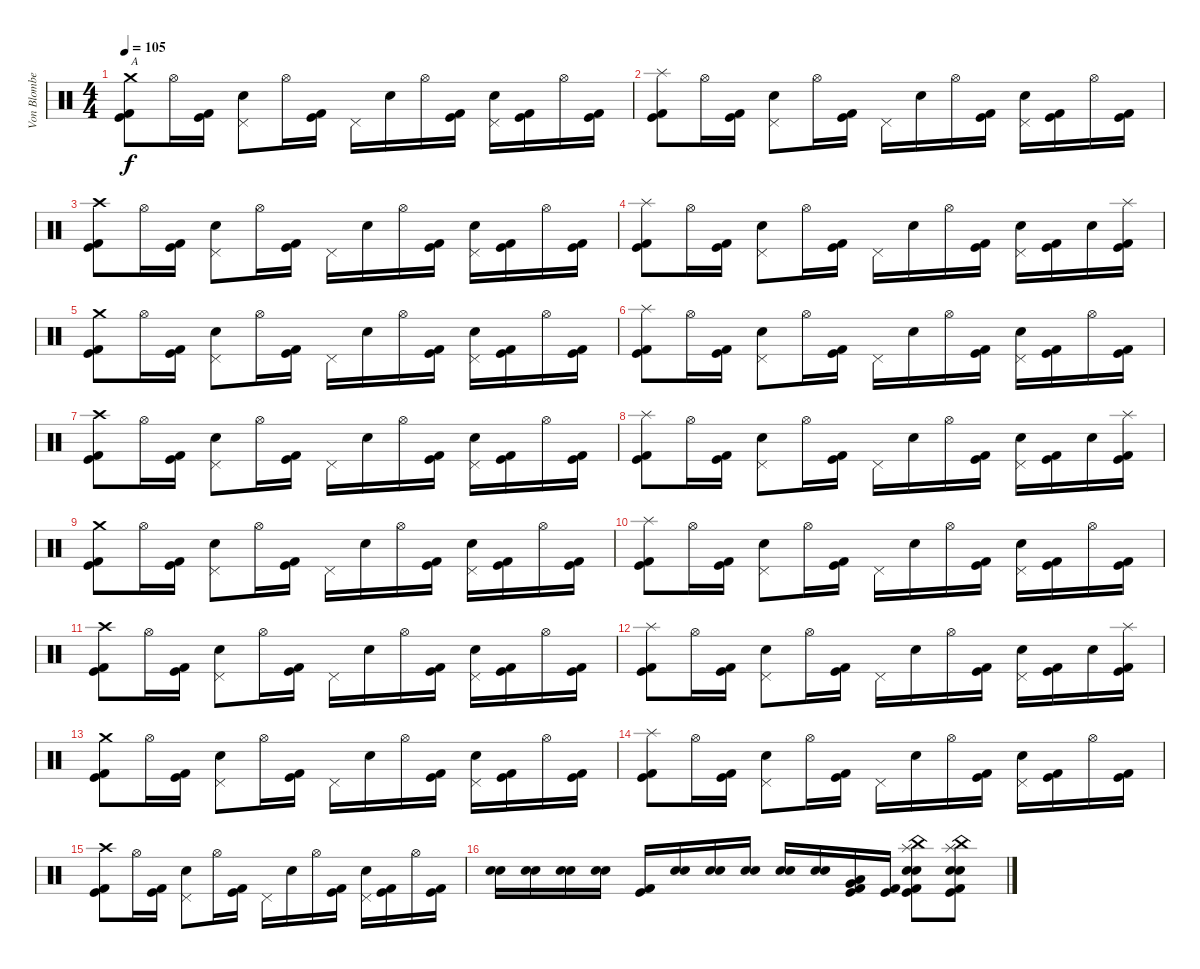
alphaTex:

\track ("Von Blomberg" "Von Blombe") {instrument percussion}
\staff {score}
\articulation defaults
\ts (4 4)
\tempo 105
\clef neutral
\ks c
("Crash medium (hit)" "Kick (hit)" "Kick (hit) 2").8{txt "A" dy f} "Hi-Hat (open)".16 ("Kick (hit)" "Kick (hit) 2").16 ("Pedal Hi-Hat (hit)" "Snare (hit) 2").8 "Hi-Hat (open)".16 ("Kick (hit)" "Kick (hit) 2").16 "Pedal Hi-Hat (hit)".16 "Snare (hit) 2".16 "Hi-Hat (open)".16 ("Kick (hit)" "Kick (hit) 2").16 ("Pedal Hi-Hat (hit)" "Snare (hit) 2").16 ("Kick (hit)" "Kick (hit) 2").16 "Hi-Hat (open)".16 ("Kick (hit)" "Kick (hit) 2").16 |
("Splash (hit)" "Kick (hit)" "Kick (hit) 2").8 "Hi-Hat (open)".16 ("Kick (hit)" "Kick (hit) 2").16 ("Pedal Hi-Hat (hit)" "Snare (hit) 2").8 "Hi-Hat (open)".16 ("Kick (hit)" "Kick (hit) 2").16 "Pedal Hi-Hat (hit)".16 "Snare (hit) 2".16 "Hi-Hat (open)".16 ("Kick (hit)" "Kick (hit) 2").16 ("Pedal Hi-Hat (hit)" "Snare (hit) 2").16 ("Kick (hit)" "Kick (hit) 2").16 "Hi-Hat (open)".16 ("Kick (hit)" "Kick (hit) 2").16 |
("Crash high (hit)" "Kick (hit)" "Kick (hit) 2").8 "Hi-Hat (open)".16 ("Kick (hit)" "Kick (hit) 2").16 ("Pedal Hi-Hat (hit)" "Snare (hit) 2").8 "Hi-Hat (open)".16 ("Kick (hit)" "Kick (hit) 2").16 "Pedal Hi-Hat (hit)".16 "Snare (hit) 2".16 "Hi-Hat (open)".16 ("Kick (hit)" "Kick (hit) 2").16 ("Pedal Hi-Hat (hit)" "Snare (hit) 2").16 ("Kick (hit)" "Kick (hit) 2").16 "Hi-Hat (open)".16 ("Kick (hit)" "Kick (hit) 2").16 |
("Splash (hit)" "Kick (hit)" "Kick (hit) 2").8 "Hi-Hat (open)".16 ("Kick (hit)" "Kick (hit) 2").16 ("Pedal Hi-Hat (hit)" "Snare (hit) 2").8 "Hi-Hat (open)".16 ("Kick (hit)" "Kick (hit) 2").16 "Pedal Hi-Hat (hit)".16 "Snare (hit) 2".16 "Hi-Hat (open)".16 ("Kick (hit)" "Kick (hit) 2").16 ("Pedal Hi-Hat (hit)" "Snare (hit) 2").16 ("Kick (hit)" "Kick (hit) 2").16 "Snare (hit) 2".16 ("Splash (hit)" "Kick (hit)" "Kick (hit) 2").16 |
("Crash medium (hit)" "Kick (hit)" "Kick (hit) 2").8 "Hi-Hat (open)".16 ("Kick (hit)" "Kick (hit) 2").16 ("Pedal Hi-Hat (hit)" "Snare (hit) 2").8 "Hi-Hat (open)".16 ("Kick (hit)" "Kick (hit) 2").16 "Pedal Hi-Hat (hit)".16 "Snare (hit) 2".16 "Hi-Hat (open)".16 ("Kick (hit)" "Kick (hit) 2").16 ("Pedal Hi-Hat (hit)" "Snare (hit) 2").16 ("Kick (hit)" "Kick (hit) 2").16 "Hi-Hat (open)".16 ("Kick (hit)" "Kick (hit) 2").16 |
("Splash (hit)" "Kick (hit)" "Kick (hit) 2").8 "Hi-Hat (open)".16 ("Kick (hit)" "Kick (hit) 2").16 ("Pedal Hi-Hat (hit)" "Snare (hit) 2").8 "Hi-Hat (open)".16 ("Kick (hit)" "Kick (hit) 2").16 "Pedal Hi-Hat (hit)".16 "Snare (hit) 2".16 "Hi-Hat (open)".16 ("Kick (hit)" "Kick (hit) 2").16 ("Pedal Hi-Hat (hit)" "Snare (hit) 2").16 ("Kick (hit)" "Kick (hit) 2").16 "Hi-Hat (open)".16 ("Kick (hit)" "Kick (hit) 2").16 |
("Crash high (hit)" "Kick (hit)" "Kick (hit) 2").8 "Hi-Hat (open)".16 ("Kick (hit)" "Kick (hit) 2").16 ("Pedal Hi-Hat (hit)" "Snare (hit) 2").8 "Hi-Hat (open)".16 ("Kick (hit)" "Kick (hit) 2").16 "Pedal Hi-Hat (hit)".16 "Snare (hit) 2".16 "Hi-Hat (open)".16 ("Kick (hit)" "Kick (hit) 2").16 ("Pedal Hi-Hat (hit)" "Snare (hit) 2").16 ("Kick (hit)" "Kick (hit) 2").16 "Hi-Hat (open)".16 ("Kick (hit)" "Kick (hit) 2").16 |
("Splash (hit)" "Kick (hit)" "Kick (hit) 2").8 "Hi-Hat (open)".16 ("Kick (hit)" "Kick (hit) 2").16 ("Pedal Hi-Hat (hit)" "Snare (hit) 2").8 "Hi-Hat (open)".16 ("Kick (hit)" "Kick (hit) 2").16 "Pedal Hi-Hat (hit)".16 "Snare (hit) 2".16 "Hi-Hat (open)".16 ("Kick (hit)" "Kick (hit) 2").16 ("Pedal Hi-Hat (hit)" "Snare (hit) 2").16 ("Kick (hit)" "Kick (hit) 2").16 "Snare (hit) 2".16 ("Splash (hit)" "Kick (hit)" "Kick (hit) 2").16 |
("Crash medium (hit)" "Kick (hit)" "Kick (hit) 2").8 "Hi-Hat (open)".16 ("Kick (hit)" "Kick (hit) 2").16 ("Pedal Hi-Hat (hit)" "Snare (hit) 2").8 "Hi-Hat (open)".16 ("Kick (hit)" "Kick (hit) 2").16 "Pedal Hi-Hat (hit)".16 "Snare (hit) 2".16 "Hi-Hat (open)".16 ("Kick (hit)" "Kick (hit) 2").16 ("Pedal Hi-Hat (hit)" "Snare (hit) 2").16 ("Kick (hit)" "Kick (hit) 2").16 "Hi-Hat (open)".16 ("Kick (hit)" "Kick (hit) 2").16 |
("Splash (hit)" "Kick (hit)" "Kick (hit) 2").8 "Hi-Hat (open)".16 ("Kick (hit)" "Kick (hit) 2").16 ("Pedal Hi-Hat (hit)" "Snare (hit) 2").8 "Hi-Hat (open)".16 ("Kick (hit)" "Kick (hit) 2").16 "Pedal Hi-Hat (hit)".16 "Snare (hit) 2".16 "Hi-Hat (open)".16 ("Kick (hit)" "Kick (hit) 2").16 ("Pedal Hi-Hat (hit)" "Snare (hit) 2").16 ("Kick (hit)" "Kick (hit) 2").16 "Hi-Hat (open)".16 ("Kick (hit)" "Kick (hit) 2").16 |
("Crash high (hit)" "Kick (hit)" "Kick (hit) 2").8 "Hi-Hat (open)".16 ("Kick (hit)" "Kick (hit) 2").16 ("Pedal Hi-Hat (hit)" "Snare (hit) 2").8 "Hi-Hat (open)".16 ("Kick (hit)" "Kick (hit) 2").16 "Pedal Hi-Hat (hit)".16 "Snare (hit) 2".16 "Hi-Hat (open)".16 ("Kick (hit)" "Kick (hit) 2").16 ("Pedal Hi-Hat (hit)" "Snare (hit) 2").16 ("Kick (hit)" "Kick (hit) 2").16 "Hi-Hat (open)".16 ("Kick (hit)" "Kick (hit) 2").16 |
("Splash (hit)" "Kick (hit)" "Kick (hit) 2").8 "Hi-Hat (open)".16 ("Kick (hit)" "Kick (hit) 2").16 ("Pedal Hi-Hat (hit)" "Snare (hit) 2").8 "Hi-Hat (open)".16 ("Kick (hit)" "Kick (hit) 2").16 "Pedal Hi-Hat (hit)".16 "Snare (hit) 2".16 "Hi-Hat (open)".16 ("Kick (hit)" "Kick (hit) 2").16 ("Pedal Hi-Hat (hit)" "Snare (hit) 2").16 ("Kick (hit)" "Kick (hit) 2").16 "Snare (hit) 2".16 ("Splash (hit)" "Kick (hit)" "Kick (hit) 2").16 |
("Crash medium (hit)" "Kick (hit)" "Kick (hit) 2").8 "Hi-Hat (open)".16 ("Kick (hit)" "Kick (hit) 2").16 ("Pedal Hi-Hat (hit)" "Snare (hit) 2").8 "Hi-Hat (open)".16 ("Kick (hit)" "Kick (hit) 2").16 "Pedal Hi-Hat (hit)".16 "Snare (hit) 2".16 "Hi-Hat (open)".16 ("Kick (hit)" "Kick (hit) 2").16 ("Pedal Hi-Hat (hit)" "Snare (hit) 2").16 ("Kick (hit)" "Kick (hit) 2").16 "Hi-Hat (open)".16 ("Kick (hit)" "Kick (hit) 2").16 |
("Splash (hit)" "Kick (hit)" "Kick (hit) 2").8 "Hi-Hat (open)".16 ("Kick (hit)" "Kick (hit) 2").16 ("Pedal Hi-Hat (hit)" "Snare (hit) 2").8 "Hi-Hat (open)".16 ("Kick (hit)" "Kick (hit) 2").16 "Pedal Hi-Hat (hit)".16 "Snare (hit) 2".16 "Hi-Hat (open)".16 ("Kick (hit)" "Kick (hit) 2").16 ("Pedal Hi-Hat (hit)" "Snare (hit) 2").16 ("Kick (hit)" "Kick (hit) 2").16 "Hi-Hat (open)".16 ("Kick (hit)" "Kick (hit) 2").16 |
("Crash high (hit)" "Kick (hit)" "Kick (hit) 2").8 "Hi-Hat (open)".16 ("Kick (hit)" "Kick (hit) 2").16 ("Pedal Hi-Hat (hit)" "Snare (hit) 2").8 "Hi-Hat (open)".16 ("Kick (hit)" "Kick (hit) 2").16 "Pedal Hi-Hat (hit)".16 "Snare (hit) 2".16 "Hi-Hat (open)".16 ("Kick (hit)" "Kick (hit) 2").16 ("Pedal Hi-Hat (hit)" "Snare (hit) 2").16 ("Kick (hit)" "Kick (hit) 2").16 "Hi-Hat (open)".16 ("Kick (hit)" "Kick (hit) 2").16 |
("Snare (hit) 2" "Electric Snare (hit)").16 ("Snare (hit) 2" "Electric Snare (hit)").16 ("Snare (hit) 2" "Electric Snare (hit)").16 ("Snare (hit) 2" "Electric Snare (hit)").16 ("Kick (hit)" "Kick (hit) 2").16 ("Snare (hit) 2" "Electric Snare (hit)").16 ("Snare (hit) 2" "Electric Snare (hit)").16 ("Snare (hit) 2" "Electric Snare (hit)").16 ("Snare (hit) 2" "Electric Snare (hit)").16 ("Snare (hit) 2" "Electric Snare (hit)").16 ("Low Tom (hit)" "Very Low Tom (hit)" "Kick (hit)" "Kick (hit) 2").16 ("Kick (hit)" "Kick (hit) 2").16 ("Splash (hit)" "China (hit)" "Snare (hit) 2" "Electric Snare (hit)" "Kick (hit)" "Kick (hit) 2").8 ("Splash (hit)" "China (hit)" "Snare (hit) 2" "Electric Snare (hit)" "Kick (hit)" "Kick (hit) 2").8
